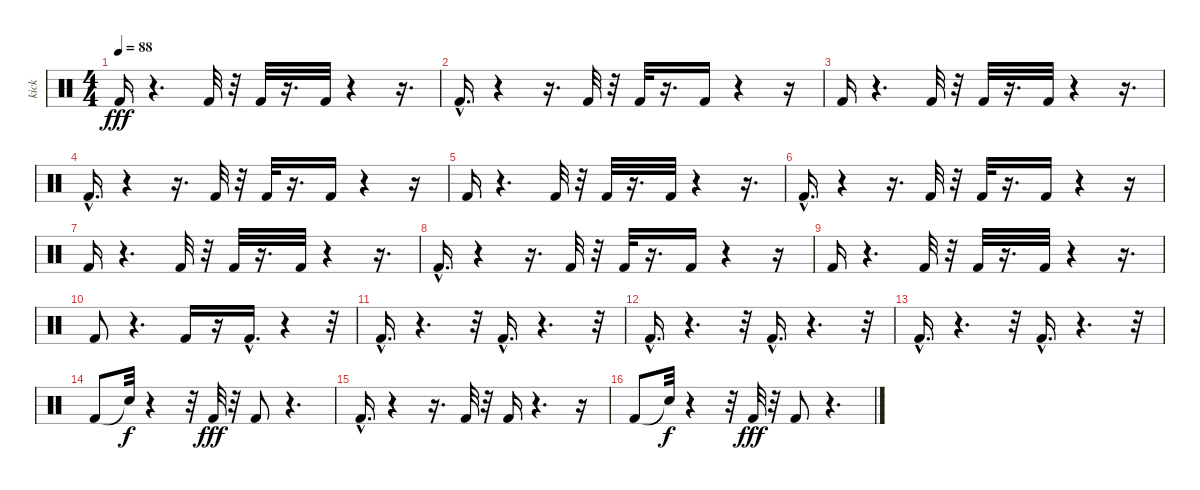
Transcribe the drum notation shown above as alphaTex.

\track ("kick" "kick") {instrument percussion}
\staff {score}
\articulation defaults
\ts (4 4)
\tempo 88
\clef neutral
\ks c "Kick (hit) 2".16{dy fff}
r.4{d} "Kick (hit) 2".32 r.32 "Kick (hit) 2".32 r.16{d} "Kick (hit) 2".32 r.4 r.16{d} |
"Kick (hit) 2"{hac}.16{d} r.4 r.16{d} "Kick (hit) 2".32 r.32 "Kick (hit) 2".32 r.16{d} "Kick (hit) 2".16 r.4 r.16 |
"Kick (hit) 2".16 r.4{d} "Kick (hit) 2".32 r.32 "Kick (hit) 2".32 r.16{d} "Kick (hit) 2".32 r.4 r.16{d} |
"Kick (hit) 2"{hac}.16{d} r.4 r.16{d} "Kick (hit) 2".32 r.32 "Kick (hit) 2".32 r.16{d} "Kick (hit) 2".16 r.4 r.16 |
"Kick (hit) 2".16 r.4{d} "Kick (hit) 2".32 r.32 "Kick (hit) 2".32 r.16{d} "Kick (hit) 2".32 r.4 r.16{d} |
"Kick (hit) 2"{hac}.16{d} r.4 r.16{d} "Kick (hit) 2".32 r.32 "Kick (hit) 2".32 r.16{d} "Kick (hit) 2".16 r.4 r.16 |
"Kick (hit) 2".16 r.4{d} "Kick (hit) 2".32 r.32 "Kick (hit) 2".32 r.16{d} "Kick (hit) 2".32 r.4 r.16{d} |
"Kick (hit) 2"{hac}.16{d} r.4 r.16{d} "Kick (hit) 2".32 r.32 "Kick (hit) 2".32 r.16{d} "Kick (hit) 2".16 r.4 r.16 |
"Kick (hit) 2".16 r.4{d} "Kick (hit) 2".32 r.32 "Kick (hit) 2".32 r.16{d} "Kick (hit) 2".32 r.4 r.16{d} |
"Kick (hit) 2".8 r.4{d} "Kick (hit) 2".16 r.16 "Kick (hit) 2"{hac}.16{d} r.4 r.32 |
"Kick (hit) 2"{hac}.16{d} r.4{d} r.32 "Kick (hit) 2"{hac}.16{d} r.4{d} r.32 |
"Kick (hit) 2"{hac}.16{d} r.4{d} r.32 "Kick (hit) 2"{hac}.16{d} r.4{d} r.32 |
"Kick (hit) 2"{hac}.16{d} r.4{d} r.32 "Kick (hit) 2"{hac}.16{d} r.4{d} r.32 |
"Kick (hit) 2".8 "Snare (hit)"{t}.32{dy f} r.4 r.32 "Kick (hit) 2".32{dy fff} r.32 "Kick (hit) 2".8 r.4{d} |
"Kick (hit) 2"{hac}.16{d} r.4 r.16{d} "Kick (hit) 2".32 r.32 "Kick (hit) 2".16 r.4{d} r.16 |
"Kick (hit) 2".8 "Snare (hit)"{t}.32{dy f} r.4 r.32 "Kick (hit) 2".32{dy fff} r.32 "Kick (hit) 2".8 r.4{d}
